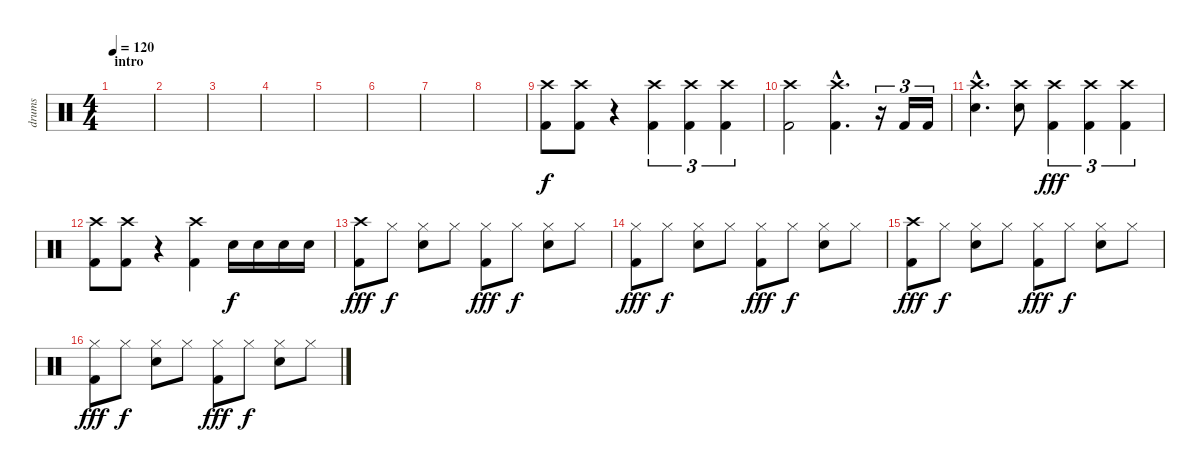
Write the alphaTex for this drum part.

\track ("drums" "drums") {instrument percussion}
\staff {score}
\articulation defaults
\ts (4 4)
\section ("" "intro")
\tempo 120
\clef neutral
\ks c
|
|
|
|
|
|
|
|
("Crash high (hit)" "Kick (hit) 2").8 ("Crash high (hit)" "Kick (hit) 2").8 r.4 ("Crash high (hit)" "Kick (hit) 2").4{tu (3 2)} ("Crash high (hit)" "Kick (hit) 2").4{tu (3 2)} ("Crash high (hit)" "Kick (hit) 2").4{tu (3 2)} |
("Crash high (hit)" "Kick (hit) 2").2 ("Crash high (hit)"{hac} "Kick (hit) 2"{hac}).4{d} r.16{tu (3 2)} "Kick (hit) 2".16{tu (3 2)} "Kick (hit) 2".16{tu (3 2)} |
("Crash high (hit)"{hac} "Snare (hit) 2"{hac}).4{d dy f} ("Crash high (hit)" "Snare (hit) 2").8 ("Crash high (hit)" "Kick (hit) 2").4{tu (3 2) dy fff} ("Crash high (hit)" "Kick (hit) 2").4{tu (3 2)} ("Crash high (hit)" "Kick (hit) 2").4{tu (3 2)} |
("Crash high (hit)" "Kick (hit) 2").8 ("Crash high (hit)" "Kick (hit) 2").8 r.4 ("Crash high (hit)" "Kick (hit) 2").4 "Snare (hit) 2".16{dy f} "Snare (hit) 2".16 "Snare (hit) 2".16 "Snare (hit) 2".16 |
("Crash high (hit)" "Kick (hit) 2").8{dy fff} "Hi-Hat (closed)".8{dy f} ("Hi-Hat (closed)" "Snare (hit) 2").8 "Hi-Hat (closed)".8 ("Hi-Hat (closed)" "Kick (hit) 2").8{dy fff} "Hi-Hat (closed)".8{dy f} ("Hi-Hat (closed)" "Snare (hit) 2").8 "Hi-Hat (closed)".8 |
("Hi-Hat (closed)" "Kick (hit) 2").8{dy fff} "Hi-Hat (closed)".8{dy f} ("Hi-Hat (closed)" "Snare (hit) 2").8 "Hi-Hat (closed)".8 ("Hi-Hat (closed)" "Kick (hit) 2").8{dy fff} "Hi-Hat (closed)".8{dy f} ("Hi-Hat (closed)" "Snare (hit) 2").8 "Hi-Hat (closed)".8 |
("Crash high (hit)" "Kick (hit) 2").8{dy fff} "Hi-Hat (closed)".8{dy f} ("Hi-Hat (closed)" "Snare (hit) 2").8 "Hi-Hat (closed)".8 ("Hi-Hat (closed)" "Kick (hit) 2").8{dy fff} "Hi-Hat (closed)".8{dy f} ("Hi-Hat (closed)" "Snare (hit) 2").8 "Hi-Hat (closed)".8 |
("Hi-Hat (closed)" "Kick (hit) 2").8{dy fff} "Hi-Hat (closed)".8{dy f} ("Hi-Hat (closed)" "Snare (hit) 2").8 "Hi-Hat (closed)".8 ("Hi-Hat (closed)" "Kick (hit) 2").8{dy fff} "Hi-Hat (closed)".8{dy f} ("Hi-Hat (closed)" "Snare (hit) 2").8 "Hi-Hat (closed)".8
